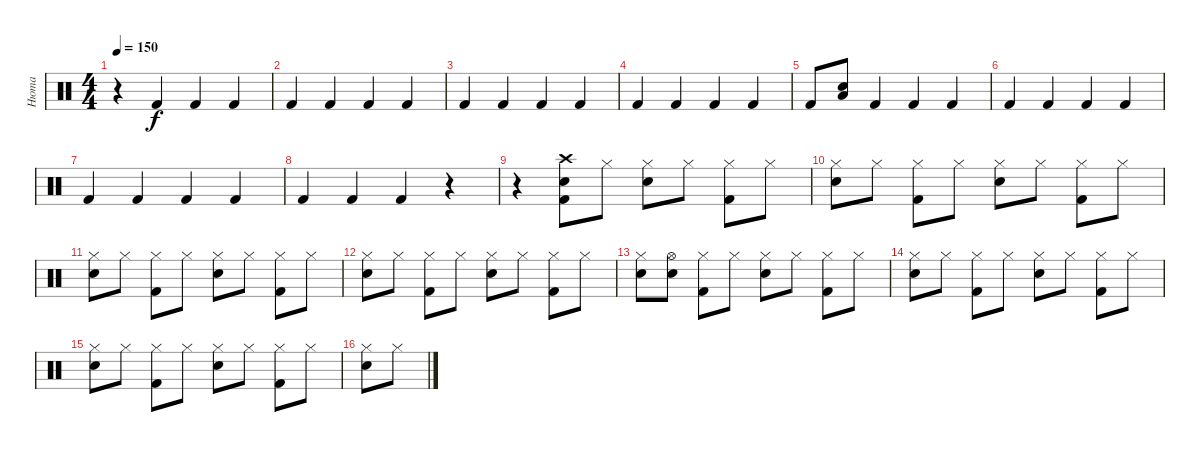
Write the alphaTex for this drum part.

\track ("Нюта" "Нюта") {instrument percussion}
\staff {score}
\articulation defaults
\ts (4 4)
\tempo 150
\clef neutral
\ks c
r.4{dy f} "Kick (hit) 2".4 "Kick (hit) 2".4 "Kick (hit) 2".4 |
"Kick (hit) 2".4 "Kick (hit) 2".4 "Kick (hit) 2".4 "Kick (hit) 2".4 |
"Kick (hit) 2".4 "Kick (hit) 2".4 "Kick (hit) 2".4 "Kick (hit) 2".4 |
"Kick (hit) 2".4 "Kick (hit) 2".4 "Kick (hit) 2".4 "Kick (hit) 2".4 |
"Kick (hit) 2".8 ("Snare (hit) 2" "Low Tom (hit)").8 "Kick (hit) 2".4 "Kick (hit) 2".4 "Kick (hit) 2".4 |
"Kick (hit) 2".4 "Kick (hit) 2".4 "Kick (hit) 2".4 "Kick (hit) 2".4 |
"Kick (hit) 2".4 "Kick (hit) 2".4 "Kick (hit) 2".4 "Kick (hit) 2".4 |
"Kick (hit) 2".4 "Kick (hit) 2".4 "Kick (hit) 2".4 r.4 |
r.4 ("Snare (hit)" "Kick (hit) 2" "Crash high (hit)").8 "Hi-Hat (closed)".8 ("Hi-Hat (closed)" "Electric Snare (hit)").8 "Hi-Hat (closed)".8 ("Hi-Hat (closed)" "Kick (hit) 2").8 "Hi-Hat (closed)".8 |
("Hi-Hat (closed)" "Electric Snare (hit)").8 "Hi-Hat (closed)".8 ("Hi-Hat (closed)" "Kick (hit) 2").8 "Hi-Hat (closed)".8 ("Hi-Hat (closed)" "Electric Snare (hit)").8 "Hi-Hat (closed)".8 ("Hi-Hat (closed)" "Kick (hit) 2").8 "Hi-Hat (closed)".8 |
("Hi-Hat (closed)" "Electric Snare (hit)").8 "Hi-Hat (closed)".8 ("Hi-Hat (closed)" "Kick (hit) 2").8 "Hi-Hat (closed)".8 ("Hi-Hat (closed)" "Electric Snare (hit)").8 "Hi-Hat (closed)".8 ("Hi-Hat (closed)" "Kick (hit) 2").8 "Hi-Hat (closed)".8 |
("Hi-Hat (closed)" "Electric Snare (hit)").8 "Hi-Hat (closed)".8 ("Hi-Hat (closed)" "Kick (hit) 2").8 "Hi-Hat (closed)".8 ("Hi-Hat (closed)" "Electric Snare (hit)").8 "Hi-Hat (closed)".8 ("Hi-Hat (closed)" "Kick (hit) 2").8 "Hi-Hat (closed)".8 |
("Hi-Hat (closed)" "Electric Snare (hit)").8 ("Snare (hit)" "Hi-Hat (open)").8 ("Hi-Hat (closed)" "Kick (hit) 2").8 "Hi-Hat (closed)".8 ("Hi-Hat (closed)" "Electric Snare (hit)").8 "Hi-Hat (closed)".8 ("Hi-Hat (closed)" "Kick (hit) 2").8 "Hi-Hat (closed)".8 |
("Hi-Hat (closed)" "Electric Snare (hit)").8 "Hi-Hat (closed)".8 ("Hi-Hat (closed)" "Kick (hit) 2").8 "Hi-Hat (closed)".8 ("Hi-Hat (closed)" "Electric Snare (hit)").8 "Hi-Hat (closed)".8 ("Hi-Hat (closed)" "Kick (hit) 2").8 "Hi-Hat (closed)".8 |
("Hi-Hat (closed)" "Electric Snare (hit)").8 "Hi-Hat (closed)".8 ("Hi-Hat (closed)" "Kick (hit) 2").8 "Hi-Hat (closed)".8 ("Hi-Hat (closed)" "Electric Snare (hit)").8 "Hi-Hat (closed)".8 ("Hi-Hat (closed)" "Kick (hit) 2").8 "Hi-Hat (closed)".8 |
("Hi-Hat (closed)" "Electric Snare (hit)").8 "Hi-Hat (closed)".8
